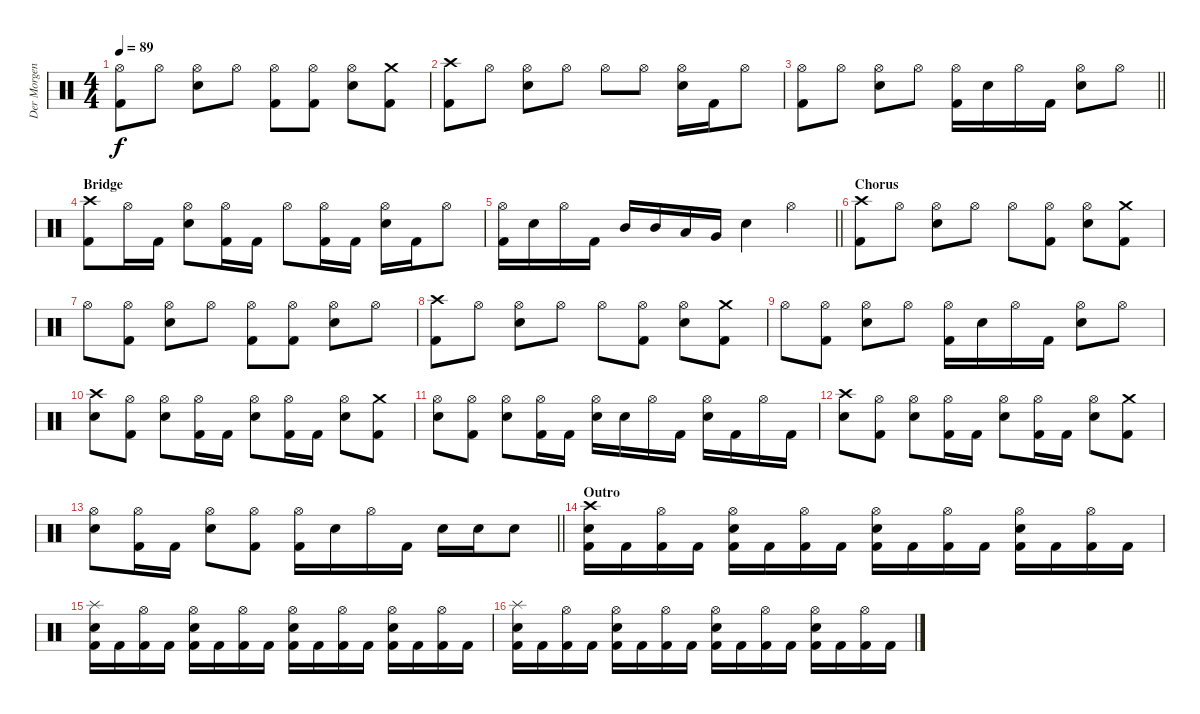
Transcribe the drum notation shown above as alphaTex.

\track ("Der Morgenstern" "Der Morgen") {instrument percussion}
\staff {score}
\articulation defaults
\ts (4 4)
\tempo 89
\clef neutral
\ks c
("Hi-Hat (open)" "Kick (hit) 2").8{dy f} "Hi-Hat (open)".8 ("Hi-Hat (open)" "Electric Snare (hit)").8 "Hi-Hat (open)".8 ("Hi-Hat (open)" "Kick (hit) 2").8 ("Hi-Hat (open)" "Kick (hit) 2").8 ("Hi-Hat (open)" "Electric Snare (hit)").8 ("Crash medium (hit)" "Kick (hit) 2").8 |
("Crash high (hit)" "Kick (hit) 2").8 "Hi-Hat (open)".8 ("Hi-Hat (open)" "Electric Snare (hit)").8 "Hi-Hat (open)".8 "Hi-Hat (open)".8 "Hi-Hat (open)".8 ("Hi-Hat (open)" "Electric Snare (hit)").16 "Kick (hit) 2".16 "Hi-Hat (open)".8 |
\barLineRight lightlight
("Hi-Hat (open)" "Kick (hit) 2").8 "Hi-Hat (open)".8 ("Hi-Hat (open)" "Electric Snare (hit)").8 "Hi-Hat (open)".8 ("Hi-Hat (open)" "Kick (hit) 2").16 "Electric Snare (hit)".16 "Hi-Hat (open)".16 "Kick (hit) 2".16 ("Hi-Hat (open)" "Electric Snare (hit)").8 "Hi-Hat (open)".8 |
\section ("" "Bridge")
("Crash high (hit)" "Kick (hit) 2").8 "Hi-Hat (open)".16 "Kick (hit) 2".16 ("Hi-Hat (open)" "Electric Snare (hit)").8 ("Hi-Hat (open)" "Kick (hit) 2").16 "Kick (hit) 2".16 "Hi-Hat (open)".8 ("Hi-Hat (open)" "Kick (hit) 2").16 "Kick (hit) 2".16 ("Hi-Hat (open)" "Electric Snare (hit)").16 "Kick (hit) 2".16 "Hi-Hat (open)".8 |
\barLineRight lightlight
("Hi-Hat (open)" "Kick (hit) 2").16 "Electric Snare (hit)".16 "Hi-Hat (open)".16 "Kick (hit) 2".16 "Mid Tom (hit)".16 "Mid Tom (hit)".16 "Low Tom (hit)".16 "Very Low Tom (hit)".16 "Electric Snare (hit)".4 "Hi-Hat (open)".4 |
\section ("" "Chorus")
("Crash high (hit)" "Kick (hit) 2").8 "Hi-Hat (open)".8 ("Hi-Hat (open)" "Electric Snare (hit)").8 "Hi-Hat (open)".8 "Hi-Hat (open)".8 ("Hi-Hat (open)" "Kick (hit) 2").8 ("Hi-Hat (open)" "Electric Snare (hit)").8 ("Crash medium (hit)" "Kick (hit) 2").8 |
"Hi-Hat (open)".8 ("Hi-Hat (open)" "Kick (hit) 2").8 ("Hi-Hat (open)" "Electric Snare (hit)").8 "Hi-Hat (open)".8 ("Hi-Hat (open)" "Kick (hit) 2").8 ("Hi-Hat (open)" "Kick (hit) 2").8 ("Hi-Hat (open)" "Electric Snare (hit)").8 "Hi-Hat (open)".8 |
("Crash high (hit)" "Kick (hit) 2").8 "Hi-Hat (open)".8 ("Hi-Hat (open)" "Electric Snare (hit)").8 "Hi-Hat (open)".8 "Hi-Hat (open)".8 ("Hi-Hat (open)" "Kick (hit) 2").8 ("Hi-Hat (open)" "Electric Snare (hit)").8 ("Crash medium (hit)" "Kick (hit) 2").8 |
"Hi-Hat (open)".8 ("Hi-Hat (open)" "Kick (hit) 2").8 ("Hi-Hat (open)" "Electric Snare (hit)").8 "Hi-Hat (open)".8 ("Hi-Hat (open)" "Kick (hit) 2").16 "Electric Snare (hit)".16 "Hi-Hat (open)".16 "Kick (hit) 2".16 ("Hi-Hat (open)" "Electric Snare (hit)").8 "Hi-Hat (open)".8 |
("Crash high (hit)" "Electric Snare (hit)").8 ("Hi-Hat (open)" "Kick (hit) 2").8 ("Hi-Hat (open)" "Electric Snare (hit)").8 ("Hi-Hat (open)" "Kick (hit) 2").16 "Kick (hit) 2".16 ("Hi-Hat (open)" "Electric Snare (hit)").8 ("Hi-Hat (open)" "Kick (hit) 2").16 "Kick (hit) 2".16 ("Hi-Hat (open)" "Electric Snare (hit)").8 ("Crash medium (hit)" "Kick (hit) 2").8 |
("Hi-Hat (open)" "Electric Snare (hit)").8 ("Hi-Hat (open)" "Kick (hit) 2").8 ("Hi-Hat (open)" "Electric Snare (hit)").8 ("Hi-Hat (open)" "Kick (hit) 2").16 "Kick (hit) 2".16 ("Hi-Hat (open)" "Electric Snare (hit)").16 "Electric Snare (hit)".16 "Hi-Hat (open)".16 "Kick (hit) 2".16 ("Hi-Hat (open)" "Electric Snare (hit)").16 "Kick (hit) 2".16 "Hi-Hat (open)".16 "Kick (hit) 2".16 |
("Crash high (hit)" "Electric Snare (hit)").8 ("Hi-Hat (open)" "Kick (hit) 2").8 ("Hi-Hat (open)" "Electric Snare (hit)").8 ("Hi-Hat (open)" "Kick (hit) 2").16 "Kick (hit) 2".16 ("Hi-Hat (open)" "Electric Snare (hit)").8 ("Hi-Hat (open)" "Kick (hit) 2").16 "Kick (hit) 2".16 ("Hi-Hat (open)" "Electric Snare (hit)").8 ("Crash medium (hit)" "Kick (hit) 2").8 |
\barLineRight lightlight
("Hi-Hat (open)" "Electric Snare (hit)").8 ("Hi-Hat (open)" "Kick (hit) 2").16 "Kick (hit) 2".16 ("Hi-Hat (open)" "Electric Snare (hit)").8 ("Hi-Hat (open)" "Kick (hit) 2").8 ("Hi-Hat (open)" "Kick (hit) 2").16 "Electric Snare (hit)".16 "Hi-Hat (open)".16 "Kick (hit) 2".16 "Electric Snare (hit)".16 "Electric Snare (hit)".16 "Electric Snare (hit)".8 |
\section ("" "Outro")
("Crash high (hit)" "Electric Snare (hit)" "Kick (hit) 2").16 "Kick (hit) 2".16 ("Hi-Hat (open)" "Kick (hit) 2").16 "Kick (hit) 2".16 ("Hi-Hat (open)" "Electric Snare (hit)" "Kick (hit) 2").16 "Kick (hit) 2".16 ("Hi-Hat (open)" "Kick (hit) 2").16 "Kick (hit) 2".16 ("Hi-Hat (open)" "Electric Snare (hit)" "Kick (hit) 2").16 "Kick (hit) 2".16 ("Hi-Hat (open)" "Kick (hit) 2").16 "Kick (hit) 2".16 ("Hi-Hat (open)" "Electric Snare (hit)" "Kick (hit) 2").16 "Kick (hit) 2".16 ("Hi-Hat (open)" "Kick (hit) 2").16 "Kick (hit) 2".16 |
("Splash (hit)" "Electric Snare (hit)" "Kick (hit) 2").16 "Kick (hit) 2".16 ("Hi-Hat (open)" "Kick (hit) 2").16 "Kick (hit) 2".16 ("Hi-Hat (open)" "Electric Snare (hit)" "Kick (hit) 2").16 "Kick (hit) 2".16 ("Hi-Hat (open)" "Kick (hit) 2").16 "Kick (hit) 2".16 ("Hi-Hat (open)" "Electric Snare (hit)" "Kick (hit) 2").16 "Kick (hit) 2".16 ("Hi-Hat (open)" "Kick (hit) 2").16 "Kick (hit) 2".16 ("Hi-Hat (open)" "Electric Snare (hit)" "Kick (hit) 2").16 "Kick (hit) 2".16 ("Hi-Hat (open)" "Kick (hit) 2").16 "Kick (hit) 2".16 |
("Splash (hit)" "Electric Snare (hit)" "Kick (hit) 2").16 "Kick (hit) 2".16 ("Hi-Hat (open)" "Kick (hit) 2").16 "Kick (hit) 2".16 ("Hi-Hat (open)" "Electric Snare (hit)" "Kick (hit) 2").16 "Kick (hit) 2".16 ("Hi-Hat (open)" "Kick (hit) 2").16 "Kick (hit) 2".16 ("Hi-Hat (open)" "Electric Snare (hit)" "Kick (hit) 2").16 "Kick (hit) 2".16 ("Hi-Hat (open)" "Kick (hit) 2").16 "Kick (hit) 2".16 ("Hi-Hat (open)" "Electric Snare (hit)" "Kick (hit) 2").16 "Kick (hit) 2".16 ("Hi-Hat (open)" "Kick (hit) 2").16 "Kick (hit) 2".16
